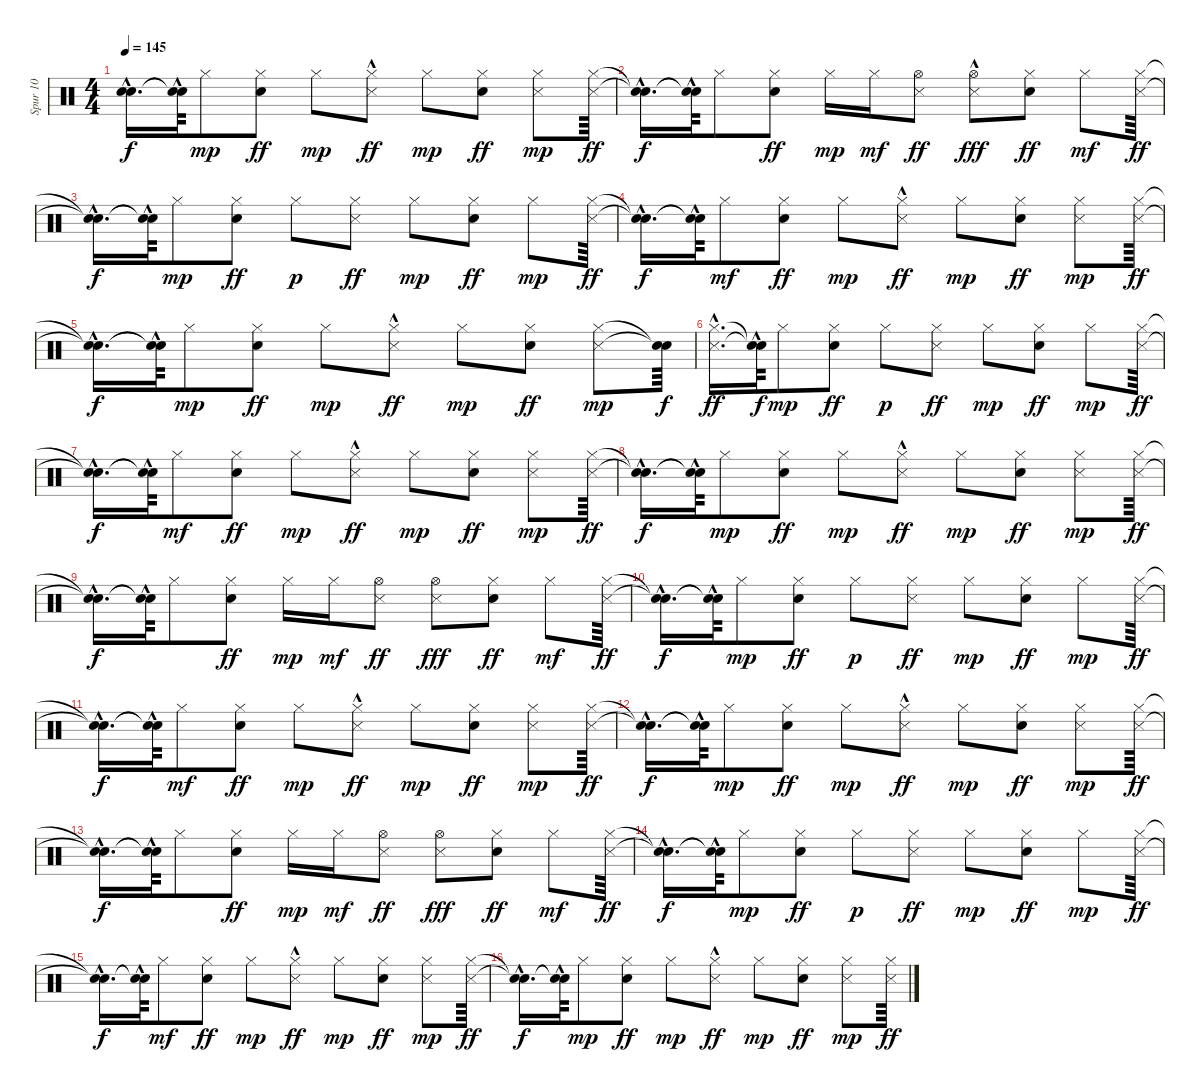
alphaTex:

\track ("Spur 10" "Spur 10") {instrument percussion}
\staff {score}
\articulation defaults
\ts (4 4)
\tempo 145
\clef neutral
\ks c
("Snare (hit)"{hac t} "Snare (hit)"{hac t}).16{d dy f} ("Snare (hit)"{hac t} "Snare (hit)"{t}).64 "Hi-Hat (closed)".8{dy mp} ("Electric Snare (hit)" "Hi-Hat (closed)").8{dy ff} "Hi-Hat (closed)".8{dy mp} ("Metronome (hit)"{hac} "Hi-Hat (closed)").8{dy ff} "Hi-Hat (closed)".8{dy mp} ("Electric Snare (hit)" "Hi-Hat (closed)").8{dy ff} ("Metronome (hit)" "Hi-Hat (closed)").8{dy mp} ("Metronome (hit)" "Hi-Hat (closed)").64{dy ff} |
("Snare (hit)"{hac t} "Snare (hit)"{hac t}).16{d dy f} ("Snare (hit)"{hac t} "Snare (hit)"{t}).64 "Hi-Hat (closed)".8 ("Electric Snare (hit)" "Hi-Hat (closed)").8{dy ff} "Hi-Hat (closed)".16{dy mp} "Hi-Hat (closed)".16{dy mf} ("Metronome (hit)" "Hi-Hat (open)").8{dy ff} ("Metronome (hit)"{hac} "Hi-Hat (open)").8{dy fff} ("Electric Snare (hit)" "Hi-Hat (closed)").8{dy ff} "Hi-Hat (closed)".8{dy mf} ("Metronome (hit)" "Hi-Hat (closed)").64{dy ff} |
("Snare (hit)"{hac t} "Snare (hit)"{hac t}).16{d dy f} ("Snare (hit)"{hac t} "Snare (hit)"{t}).64 "Hi-Hat (closed)".8{dy mp} ("Electric Snare (hit)" "Hi-Hat (closed)").8{dy ff} "Hi-Hat (closed)".8{dy p} ("Metronome (hit)" "Hi-Hat (closed)").8{dy ff} "Hi-Hat (closed)".8{dy mp} ("Electric Snare (hit)" "Hi-Hat (closed)").8{dy ff} "Hi-Hat (closed)".8{dy mp} ("Metronome (hit)" "Hi-Hat (closed)").64{dy ff} |
("Snare (hit)"{hac t} "Snare (hit)"{hac t}).16{d dy f} ("Snare (hit)"{hac t} "Snare (hit)"{t}).64 "Hi-Hat (closed)".8{dy mf} ("Electric Snare (hit)" "Hi-Hat (closed)").8{dy ff} "Hi-Hat (closed)".8{dy mp} ("Metronome (hit)"{hac} "Hi-Hat (closed)").8{dy ff} "Hi-Hat (closed)".8{dy mp} ("Electric Snare (hit)" "Hi-Hat (closed)").8{dy ff} ("Metronome (hit)" "Hi-Hat (closed)").8{dy mp} ("Metronome (hit)" "Hi-Hat (closed)").64{dy ff} |
("Snare (hit)"{hac t} "Snare (hit)"{hac t}).16{d dy f} ("Snare (hit)"{hac t} "Snare (hit)"{t}).64 "Hi-Hat (closed)".8{dy mp} ("Electric Snare (hit)" "Hi-Hat (closed)").8{dy ff} "Hi-Hat (closed)".8{dy mp} ("Metronome (hit)"{hac} "Hi-Hat (closed)").8{dy ff} "Hi-Hat (closed)".8{dy mp} ("Electric Snare (hit)" "Hi-Hat (closed)").8{dy ff} ("Metronome (hit)" "Hi-Hat (closed)").8{dy mp} ("Snare (hit)"{t} "Snare (hit)"{t}).64{dy f} |
("Metronome (hit)"{hac} "Hi-Hat (closed)"{hac}).16{d dy ff} ("Snare (hit)"{hac t} "Snare (hit)"{t}).64{dy f} "Hi-Hat (closed)".8{dy mp} ("Electric Snare (hit)" "Hi-Hat (closed)").8{dy ff} "Hi-Hat (closed)".8{dy p} ("Metronome (hit)" "Hi-Hat (closed)").8{dy ff} "Hi-Hat (closed)".8{dy mp} ("Electric Snare (hit)" "Hi-Hat (closed)").8{dy ff} "Hi-Hat (closed)".8{dy mp} ("Metronome (hit)" "Hi-Hat (closed)").64{dy ff} |
("Snare (hit)"{hac t} "Snare (hit)"{hac t}).16{d dy f} ("Snare (hit)"{hac t} "Snare (hit)"{t}).64 "Hi-Hat (closed)".8{dy mf} ("Electric Snare (hit)" "Hi-Hat (closed)").8{dy ff} "Hi-Hat (closed)".8{dy mp} ("Metronome (hit)"{hac} "Hi-Hat (closed)").8{dy ff} "Hi-Hat (closed)".8{dy mp} ("Electric Snare (hit)" "Hi-Hat (closed)").8{dy ff} ("Metronome (hit)" "Hi-Hat (closed)").8{dy mp} ("Metronome (hit)" "Hi-Hat (closed)").64{dy ff} |
("Snare (hit)"{hac t} "Snare (hit)"{hac t}).16{d dy f} ("Snare (hit)"{hac t} "Snare (hit)"{t}).64 "Hi-Hat (closed)".8{dy mp} ("Electric Snare (hit)" "Hi-Hat (closed)").8{dy ff} "Hi-Hat (closed)".8{dy mp} ("Metronome (hit)"{hac} "Hi-Hat (closed)").8{dy ff} "Hi-Hat (closed)".8{dy mp} ("Electric Snare (hit)" "Hi-Hat (closed)").8{dy ff} ("Metronome (hit)" "Hi-Hat (closed)").8{dy mp} ("Metronome (hit)" "Hi-Hat (closed)").64{dy ff} |
("Snare (hit)"{hac t} "Snare (hit)"{hac t}).16{d dy f} ("Snare (hit)"{hac t} "Snare (hit)"{t}).64 "Hi-Hat (closed)".8 ("Electric Snare (hit)" "Hi-Hat (closed)").8{dy ff} "Hi-Hat (closed)".16{dy mp} "Hi-Hat (closed)".16{dy mf} ("Metronome (hit)" "Hi-Hat (open)").8{dy ff} ("Metronome (hit)" "Hi-Hat (open)").8{dy fff} ("Electric Snare (hit)" "Hi-Hat (closed)").8{dy ff} "Hi-Hat (closed)".8{dy mf} ("Metronome (hit)" "Hi-Hat (closed)").64{dy ff} |
("Snare (hit)"{hac t} "Snare (hit)"{hac t}).16{d dy f} ("Snare (hit)"{hac t} "Snare (hit)"{t}).64 "Hi-Hat (closed)".8{dy mp} ("Electric Snare (hit)" "Hi-Hat (closed)").8{dy ff} "Hi-Hat (closed)".8{dy p} ("Metronome (hit)" "Hi-Hat (closed)").8{dy ff} "Hi-Hat (closed)".8{dy mp} ("Electric Snare (hit)" "Hi-Hat (closed)").8{dy ff} "Hi-Hat (closed)".8{dy mp} ("Metronome (hit)" "Hi-Hat (closed)").64{dy ff} |
("Snare (hit)"{hac t} "Snare (hit)"{hac t}).16{d dy f} ("Snare (hit)"{hac t} "Snare (hit)"{t}).64 "Hi-Hat (closed)".8{dy mf} ("Electric Snare (hit)" "Hi-Hat (closed)").8{dy ff} "Hi-Hat (closed)".8{dy mp} ("Metronome (hit)"{hac} "Hi-Hat (closed)").8{dy ff} "Hi-Hat (closed)".8{dy mp} ("Electric Snare (hit)" "Hi-Hat (closed)").8{dy ff} ("Metronome (hit)" "Hi-Hat (closed)").8{dy mp} ("Metronome (hit)" "Hi-Hat (closed)").64{dy ff} |
("Snare (hit)"{hac t} "Snare (hit)"{hac t}).16{d dy f} ("Snare (hit)"{hac t} "Snare (hit)"{t}).64 "Hi-Hat (closed)".8{dy mp} ("Electric Snare (hit)" "Hi-Hat (closed)").8{dy ff} "Hi-Hat (closed)".8{dy mp} ("Metronome (hit)"{hac} "Hi-Hat (closed)").8{dy ff} "Hi-Hat (closed)".8{dy mp} ("Electric Snare (hit)" "Hi-Hat (closed)").8{dy ff} ("Metronome (hit)" "Hi-Hat (closed)").8{dy mp} ("Metronome (hit)" "Hi-Hat (closed)").64{dy ff} |
("Snare (hit)"{hac t} "Snare (hit)"{hac t}).16{d dy f} ("Snare (hit)"{hac t} "Snare (hit)"{t}).64 "Hi-Hat (closed)".8 ("Electric Snare (hit)" "Hi-Hat (closed)").8{dy ff} "Hi-Hat (closed)".16{dy mp} "Hi-Hat (closed)".16{dy mf} ("Metronome (hit)" "Hi-Hat (open)").8{dy ff} ("Metronome (hit)" "Hi-Hat (open)").8{dy fff} ("Electric Snare (hit)" "Hi-Hat (closed)").8{dy ff} "Hi-Hat (closed)".8{dy mf} ("Metronome (hit)" "Hi-Hat (closed)").64{dy ff} |
("Snare (hit)"{hac t} "Snare (hit)"{hac t}).16{d dy f} ("Snare (hit)"{hac t} "Snare (hit)"{t}).64 "Hi-Hat (closed)".8{dy mp} ("Electric Snare (hit)" "Hi-Hat (closed)").8{dy ff} "Hi-Hat (closed)".8{dy p} ("Metronome (hit)" "Hi-Hat (closed)").8{dy ff} "Hi-Hat (closed)".8{dy mp} ("Electric Snare (hit)" "Hi-Hat (closed)").8{dy ff} "Hi-Hat (closed)".8{dy mp} ("Metronome (hit)" "Hi-Hat (closed)").64{dy ff} |
("Snare (hit)"{hac t} "Snare (hit)"{hac t}).16{d dy f} ("Snare (hit)"{hac t} "Snare (hit)"{t}).64 "Hi-Hat (closed)".8{dy mf} ("Electric Snare (hit)" "Hi-Hat (closed)").8{dy ff} "Hi-Hat (closed)".8{dy mp} ("Metronome (hit)"{hac} "Hi-Hat (closed)").8{dy ff} "Hi-Hat (closed)".8{dy mp} ("Electric Snare (hit)" "Hi-Hat (closed)").8{dy ff} ("Metronome (hit)" "Hi-Hat (closed)").8{dy mp} ("Metronome (hit)" "Hi-Hat (closed)").64{dy ff} |
("Snare (hit)"{hac t} "Snare (hit)"{hac t}).16{d dy f} ("Snare (hit)"{hac t} "Snare (hit)"{t}).64 "Hi-Hat (closed)".8{dy mp} ("Electric Snare (hit)" "Hi-Hat (closed)").8{dy ff} "Hi-Hat (closed)".8{dy mp} ("Metronome (hit)"{hac} "Hi-Hat (closed)").8{dy ff} "Hi-Hat (closed)".8{dy mp} ("Electric Snare (hit)" "Hi-Hat (closed)").8{dy ff} ("Metronome (hit)" "Hi-Hat (closed)").8{dy mp} ("Metronome (hit)" "Hi-Hat (closed)").64{dy ff}
